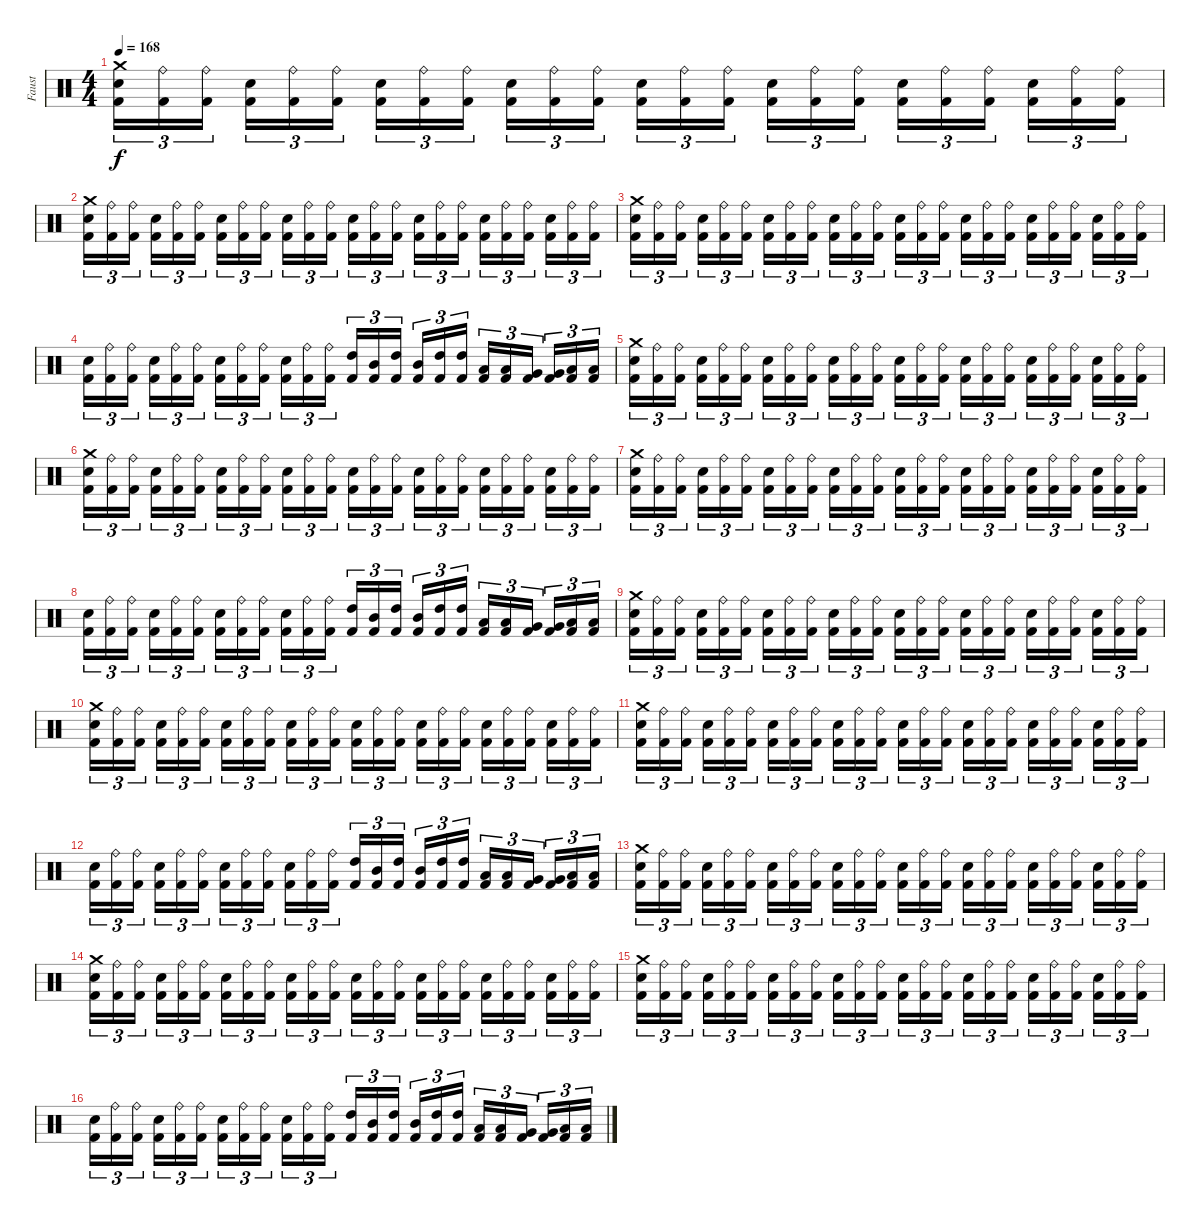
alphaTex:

\track ("Faust" "Faust") {instrument percussion}
\staff {score}
\articulation defaults
\ts (4 4)
\tempo 168
\clef neutral
\ks c
("Crash medium (hit)" "Electric Snare (hit)" "Kick (hit) 2").16{tu (3 2) dy f} ("Ride (bell)" "Kick (hit) 2").16{tu (3 2)} ("Ride (bell)" "Kick (hit) 2").16{tu (3 2)} ("Electric Snare (hit)" "Kick (hit) 2").16{tu (3 2)} ("Ride (bell)" "Kick (hit) 2").16{tu (3 2)} ("Ride (bell)" "Kick (hit) 2").16{tu (3 2)} ("Electric Snare (hit)" "Kick (hit) 2").16{tu (3 2)} ("Ride (bell)" "Kick (hit) 2").16{tu (3 2)} ("Ride (bell)" "Kick (hit) 2").16{tu (3 2)} ("Electric Snare (hit)" "Kick (hit) 2").16{tu (3 2)} ("Ride (bell)" "Kick (hit) 2").16{tu (3 2)} ("Ride (bell)" "Kick (hit) 2").16{tu (3 2)} ("Electric Snare (hit)" "Kick (hit) 2").16{tu (3 2)} ("Ride (bell)" "Kick (hit) 2").16{tu (3 2)} ("Ride (bell)" "Kick (hit) 2").16{tu (3 2)} ("Electric Snare (hit)" "Kick (hit) 2").16{tu (3 2)} ("Ride (bell)" "Kick (hit) 2").16{tu (3 2)} ("Ride (bell)" "Kick (hit) 2").16{tu (3 2)} ("Electric Snare (hit)" "Kick (hit) 2").16{tu (3 2)} ("Ride (bell)" "Kick (hit) 2").16{tu (3 2)} ("Ride (bell)" "Kick (hit) 2").16{tu (3 2)} ("Electric Snare (hit)" "Kick (hit) 2").16{tu (3 2)} ("Ride (bell)" "Kick (hit) 2").16{tu (3 2)} ("Ride (bell)" "Kick (hit) 2").16{tu (3 2)} |
("Crash medium (hit)" "Electric Snare (hit)" "Kick (hit) 2").16{tu (3 2)} ("Ride (bell)" "Kick (hit) 2").16{tu (3 2)} ("Ride (bell)" "Kick (hit) 2").16{tu (3 2)} ("Electric Snare (hit)" "Kick (hit) 2").16{tu (3 2)} ("Ride (bell)" "Kick (hit) 2").16{tu (3 2)} ("Ride (bell)" "Kick (hit) 2").16{tu (3 2)} ("Electric Snare (hit)" "Kick (hit) 2").16{tu (3 2)} ("Ride (bell)" "Kick (hit) 2").16{tu (3 2)} ("Ride (bell)" "Kick (hit) 2").16{tu (3 2)} ("Electric Snare (hit)" "Kick (hit) 2").16{tu (3 2)} ("Ride (bell)" "Kick (hit) 2").16{tu (3 2)} ("Ride (bell)" "Kick (hit) 2").16{tu (3 2)} ("Electric Snare (hit)" "Kick (hit) 2").16{tu (3 2)} ("Ride (bell)" "Kick (hit) 2").16{tu (3 2)} ("Ride (bell)" "Kick (hit) 2").16{tu (3 2)} ("Electric Snare (hit)" "Kick (hit) 2").16{tu (3 2)} ("Ride (bell)" "Kick (hit) 2").16{tu (3 2)} ("Ride (bell)" "Kick (hit) 2").16{tu (3 2)} ("Electric Snare (hit)" "Kick (hit) 2").16{tu (3 2)} ("Ride (bell)" "Kick (hit) 2").16{tu (3 2)} ("Ride (bell)" "Kick (hit) 2").16{tu (3 2)} ("Electric Snare (hit)" "Kick (hit) 2").16{tu (3 2)} ("Ride (bell)" "Kick (hit) 2").16{tu (3 2)} ("Ride (bell)" "Kick (hit) 2").16{tu (3 2)} |
("Crash medium (hit)" "Electric Snare (hit)" "Kick (hit) 2").16{tu (3 2)} ("Ride (bell)" "Kick (hit) 2").16{tu (3 2)} ("Ride (bell)" "Kick (hit) 2").16{tu (3 2)} ("Electric Snare (hit)" "Kick (hit) 2").16{tu (3 2)} ("Ride (bell)" "Kick (hit) 2").16{tu (3 2)} ("Ride (bell)" "Kick (hit) 2").16{tu (3 2)} ("Electric Snare (hit)" "Kick (hit) 2").16{tu (3 2)} ("Ride (bell)" "Kick (hit) 2").16{tu (3 2)} ("Ride (bell)" "Kick (hit) 2").16{tu (3 2)} ("Electric Snare (hit)" "Kick (hit) 2").16{tu (3 2)} ("Ride (bell)" "Kick (hit) 2").16{tu (3 2)} ("Ride (bell)" "Kick (hit) 2").16{tu (3 2)} ("Electric Snare (hit)" "Kick (hit) 2").16{tu (3 2)} ("Ride (bell)" "Kick (hit) 2").16{tu (3 2)} ("Ride (bell)" "Kick (hit) 2").16{tu (3 2)} ("Electric Snare (hit)" "Kick (hit) 2").16{tu (3 2)} ("Ride (bell)" "Kick (hit) 2").16{tu (3 2)} ("Ride (bell)" "Kick (hit) 2").16{tu (3 2)} ("Electric Snare (hit)" "Kick (hit) 2").16{tu (3 2)} ("Ride (bell)" "Kick (hit) 2").16{tu (3 2)} ("Ride (bell)" "Kick (hit) 2").16{tu (3 2)} ("Electric Snare (hit)" "Kick (hit) 2").16{tu (3 2)} ("Ride (bell)" "Kick (hit) 2").16{tu (3 2)} ("Ride (bell)" "Kick (hit) 2").16{tu (3 2)} |
("Electric Snare (hit)" "Kick (hit) 2").16{tu (3 2)} ("Ride (bell)" "Kick (hit) 2").16{tu (3 2)} ("Ride (bell)" "Kick (hit) 2").16{tu (3 2)} ("Electric Snare (hit)" "Kick (hit) 2").16{tu (3 2)} ("Ride (bell)" "Kick (hit) 2").16{tu (3 2)} ("Ride (bell)" "Kick (hit) 2").16{tu (3 2)} ("Electric Snare (hit)" "Kick (hit) 2").16{tu (3 2)} ("Ride (bell)" "Kick (hit) 2").16{tu (3 2)} ("Ride (bell)" "Kick (hit) 2").16{tu (3 2)} ("Electric Snare (hit)" "Kick (hit) 2").16{tu (3 2)} ("Ride (bell)" "Kick (hit) 2").16{tu (3 2)} ("Ride (bell)" "Kick (hit) 2").16{tu (3 2)} ("High Tom (hit)" "Kick (hit) 2").16{tu (3 2)} ("Mid Tom (hit)" "Kick (hit) 2").16{tu (3 2)} ("High Tom (hit)" "Kick (hit) 2").16{tu (3 2)} ("Mid Tom (hit)" "Kick (hit) 2").16{tu (3 2)} ("High Tom (hit)" "Kick (hit) 2").16{tu (3 2)} ("High Tom (hit)" "Kick (hit) 2").16{tu (3 2)} ("Low Tom (hit)" "Kick (hit) 2").16{tu (3 2)} ("Low Tom (hit)" "Kick (hit) 2").16{tu (3 2)} ("Very Low Tom (hit)" "Kick (hit) 2").16{tu (3 2)} ("Very Low Tom (hit)" "Kick (hit) 2").16{tu (3 2)} ("Low Floor Tom (hit)" "Kick (hit) 2").16{tu (3 2)} ("Low Floor Tom (hit)" "Kick (hit) 2").16{tu (3 2)} |
("Crash medium (hit)" "Electric Snare (hit)" "Kick (hit) 2").16{tu (3 2)} ("Ride (bell)" "Kick (hit) 2").16{tu (3 2)} ("Ride (bell)" "Kick (hit) 2").16{tu (3 2)} ("Electric Snare (hit)" "Kick (hit) 2").16{tu (3 2)} ("Ride (bell)" "Kick (hit) 2").16{tu (3 2)} ("Ride (bell)" "Kick (hit) 2").16{tu (3 2)} ("Electric Snare (hit)" "Kick (hit) 2").16{tu (3 2)} ("Ride (bell)" "Kick (hit) 2").16{tu (3 2)} ("Ride (bell)" "Kick (hit) 2").16{tu (3 2)} ("Electric Snare (hit)" "Kick (hit) 2").16{tu (3 2)} ("Ride (bell)" "Kick (hit) 2").16{tu (3 2)} ("Ride (bell)" "Kick (hit) 2").16{tu (3 2)} ("Electric Snare (hit)" "Kick (hit) 2").16{tu (3 2)} ("Ride (bell)" "Kick (hit) 2").16{tu (3 2)} ("Ride (bell)" "Kick (hit) 2").16{tu (3 2)} ("Electric Snare (hit)" "Kick (hit) 2").16{tu (3 2)} ("Ride (bell)" "Kick (hit) 2").16{tu (3 2)} ("Ride (bell)" "Kick (hit) 2").16{tu (3 2)} ("Electric Snare (hit)" "Kick (hit) 2").16{tu (3 2)} ("Ride (bell)" "Kick (hit) 2").16{tu (3 2)} ("Ride (bell)" "Kick (hit) 2").16{tu (3 2)} ("Electric Snare (hit)" "Kick (hit) 2").16{tu (3 2)} ("Ride (bell)" "Kick (hit) 2").16{tu (3 2)} ("Ride (bell)" "Kick (hit) 2").16{tu (3 2)} |
("Crash medium (hit)" "Electric Snare (hit)" "Kick (hit) 2").16{tu (3 2)} ("Ride (bell)" "Kick (hit) 2").16{tu (3 2)} ("Ride (bell)" "Kick (hit) 2").16{tu (3 2)} ("Electric Snare (hit)" "Kick (hit) 2").16{tu (3 2)} ("Ride (bell)" "Kick (hit) 2").16{tu (3 2)} ("Ride (bell)" "Kick (hit) 2").16{tu (3 2)} ("Electric Snare (hit)" "Kick (hit) 2").16{tu (3 2)} ("Ride (bell)" "Kick (hit) 2").16{tu (3 2)} ("Ride (bell)" "Kick (hit) 2").16{tu (3 2)} ("Electric Snare (hit)" "Kick (hit) 2").16{tu (3 2)} ("Ride (bell)" "Kick (hit) 2").16{tu (3 2)} ("Ride (bell)" "Kick (hit) 2").16{tu (3 2)} ("Electric Snare (hit)" "Kick (hit) 2").16{tu (3 2)} ("Ride (bell)" "Kick (hit) 2").16{tu (3 2)} ("Ride (bell)" "Kick (hit) 2").16{tu (3 2)} ("Electric Snare (hit)" "Kick (hit) 2").16{tu (3 2)} ("Ride (bell)" "Kick (hit) 2").16{tu (3 2)} ("Ride (bell)" "Kick (hit) 2").16{tu (3 2)} ("Electric Snare (hit)" "Kick (hit) 2").16{tu (3 2)} ("Ride (bell)" "Kick (hit) 2").16{tu (3 2)} ("Ride (bell)" "Kick (hit) 2").16{tu (3 2)} ("Electric Snare (hit)" "Kick (hit) 2").16{tu (3 2)} ("Ride (bell)" "Kick (hit) 2").16{tu (3 2)} ("Ride (bell)" "Kick (hit) 2").16{tu (3 2)} |
("Crash medium (hit)" "Electric Snare (hit)" "Kick (hit) 2").16{tu (3 2)} ("Ride (bell)" "Kick (hit) 2").16{tu (3 2)} ("Ride (bell)" "Kick (hit) 2").16{tu (3 2)} ("Electric Snare (hit)" "Kick (hit) 2").16{tu (3 2)} ("Ride (bell)" "Kick (hit) 2").16{tu (3 2)} ("Ride (bell)" "Kick (hit) 2").16{tu (3 2)} ("Electric Snare (hit)" "Kick (hit) 2").16{tu (3 2)} ("Ride (bell)" "Kick (hit) 2").16{tu (3 2)} ("Ride (bell)" "Kick (hit) 2").16{tu (3 2)} ("Electric Snare (hit)" "Kick (hit) 2").16{tu (3 2)} ("Ride (bell)" "Kick (hit) 2").16{tu (3 2)} ("Ride (bell)" "Kick (hit) 2").16{tu (3 2)} ("Electric Snare (hit)" "Kick (hit) 2").16{tu (3 2)} ("Ride (bell)" "Kick (hit) 2").16{tu (3 2)} ("Ride (bell)" "Kick (hit) 2").16{tu (3 2)} ("Electric Snare (hit)" "Kick (hit) 2").16{tu (3 2)} ("Ride (bell)" "Kick (hit) 2").16{tu (3 2)} ("Ride (bell)" "Kick (hit) 2").16{tu (3 2)} ("Electric Snare (hit)" "Kick (hit) 2").16{tu (3 2)} ("Ride (bell)" "Kick (hit) 2").16{tu (3 2)} ("Ride (bell)" "Kick (hit) 2").16{tu (3 2)} ("Electric Snare (hit)" "Kick (hit) 2").16{tu (3 2)} ("Ride (bell)" "Kick (hit) 2").16{tu (3 2)} ("Ride (bell)" "Kick (hit) 2").16{tu (3 2)} |
("Electric Snare (hit)" "Kick (hit) 2").16{tu (3 2)} ("Ride (bell)" "Kick (hit) 2").16{tu (3 2)} ("Ride (bell)" "Kick (hit) 2").16{tu (3 2)} ("Electric Snare (hit)" "Kick (hit) 2").16{tu (3 2)} ("Ride (bell)" "Kick (hit) 2").16{tu (3 2)} ("Ride (bell)" "Kick (hit) 2").16{tu (3 2)} ("Electric Snare (hit)" "Kick (hit) 2").16{tu (3 2)} ("Ride (bell)" "Kick (hit) 2").16{tu (3 2)} ("Ride (bell)" "Kick (hit) 2").16{tu (3 2)} ("Electric Snare (hit)" "Kick (hit) 2").16{tu (3 2)} ("Ride (bell)" "Kick (hit) 2").16{tu (3 2)} ("Ride (bell)" "Kick (hit) 2").16{tu (3 2)} ("High Tom (hit)" "Kick (hit) 2").16{tu (3 2)} ("Mid Tom (hit)" "Kick (hit) 2").16{tu (3 2)} ("High Tom (hit)" "Kick (hit) 2").16{tu (3 2)} ("Mid Tom (hit)" "Kick (hit) 2").16{tu (3 2)} ("High Tom (hit)" "Kick (hit) 2").16{tu (3 2)} ("High Tom (hit)" "Kick (hit) 2").16{tu (3 2)} ("Low Tom (hit)" "Kick (hit) 2").16{tu (3 2)} ("Low Tom (hit)" "Kick (hit) 2").16{tu (3 2)} ("Very Low Tom (hit)" "Kick (hit) 2").16{tu (3 2)} ("Very Low Tom (hit)" "Kick (hit) 2").16{tu (3 2)} ("Low Floor Tom (hit)" "Kick (hit) 2").16{tu (3 2)} ("Low Floor Tom (hit)" "Kick (hit) 2").16{tu (3 2)} |
("Crash medium (hit)" "Electric Snare (hit)" "Kick (hit) 2").16{tu (3 2)} ("Ride (bell)" "Kick (hit) 2").16{tu (3 2)} ("Ride (bell)" "Kick (hit) 2").16{tu (3 2)} ("Electric Snare (hit)" "Kick (hit) 2").16{tu (3 2)} ("Ride (bell)" "Kick (hit) 2").16{tu (3 2)} ("Ride (bell)" "Kick (hit) 2").16{tu (3 2)} ("Electric Snare (hit)" "Kick (hit) 2").16{tu (3 2)} ("Ride (bell)" "Kick (hit) 2").16{tu (3 2)} ("Ride (bell)" "Kick (hit) 2").16{tu (3 2)} ("Electric Snare (hit)" "Kick (hit) 2").16{tu (3 2)} ("Ride (bell)" "Kick (hit) 2").16{tu (3 2)} ("Ride (bell)" "Kick (hit) 2").16{tu (3 2)} ("Electric Snare (hit)" "Kick (hit) 2").16{tu (3 2)} ("Ride (bell)" "Kick (hit) 2").16{tu (3 2)} ("Ride (bell)" "Kick (hit) 2").16{tu (3 2)} ("Electric Snare (hit)" "Kick (hit) 2").16{tu (3 2)} ("Ride (bell)" "Kick (hit) 2").16{tu (3 2)} ("Ride (bell)" "Kick (hit) 2").16{tu (3 2)} ("Electric Snare (hit)" "Kick (hit) 2").16{tu (3 2)} ("Ride (bell)" "Kick (hit) 2").16{tu (3 2)} ("Ride (bell)" "Kick (hit) 2").16{tu (3 2)} ("Electric Snare (hit)" "Kick (hit) 2").16{tu (3 2)} ("Ride (bell)" "Kick (hit) 2").16{tu (3 2)} ("Ride (bell)" "Kick (hit) 2").16{tu (3 2)} |
("Crash medium (hit)" "Electric Snare (hit)" "Kick (hit) 2").16{tu (3 2)} ("Ride (bell)" "Kick (hit) 2").16{tu (3 2)} ("Ride (bell)" "Kick (hit) 2").16{tu (3 2)} ("Electric Snare (hit)" "Kick (hit) 2").16{tu (3 2)} ("Ride (bell)" "Kick (hit) 2").16{tu (3 2)} ("Ride (bell)" "Kick (hit) 2").16{tu (3 2)} ("Electric Snare (hit)" "Kick (hit) 2").16{tu (3 2)} ("Ride (bell)" "Kick (hit) 2").16{tu (3 2)} ("Ride (bell)" "Kick (hit) 2").16{tu (3 2)} ("Electric Snare (hit)" "Kick (hit) 2").16{tu (3 2)} ("Ride (bell)" "Kick (hit) 2").16{tu (3 2)} ("Ride (bell)" "Kick (hit) 2").16{tu (3 2)} ("Electric Snare (hit)" "Kick (hit) 2").16{tu (3 2)} ("Ride (bell)" "Kick (hit) 2").16{tu (3 2)} ("Ride (bell)" "Kick (hit) 2").16{tu (3 2)} ("Electric Snare (hit)" "Kick (hit) 2").16{tu (3 2)} ("Ride (bell)" "Kick (hit) 2").16{tu (3 2)} ("Ride (bell)" "Kick (hit) 2").16{tu (3 2)} ("Electric Snare (hit)" "Kick (hit) 2").16{tu (3 2)} ("Ride (bell)" "Kick (hit) 2").16{tu (3 2)} ("Ride (bell)" "Kick (hit) 2").16{tu (3 2)} ("Electric Snare (hit)" "Kick (hit) 2").16{tu (3 2)} ("Ride (bell)" "Kick (hit) 2").16{tu (3 2)} ("Ride (bell)" "Kick (hit) 2").16{tu (3 2)} |
("Crash medium (hit)" "Electric Snare (hit)" "Kick (hit) 2").16{tu (3 2)} ("Ride (bell)" "Kick (hit) 2").16{tu (3 2)} ("Ride (bell)" "Kick (hit) 2").16{tu (3 2)} ("Electric Snare (hit)" "Kick (hit) 2").16{tu (3 2)} ("Ride (bell)" "Kick (hit) 2").16{tu (3 2)} ("Ride (bell)" "Kick (hit) 2").16{tu (3 2)} ("Electric Snare (hit)" "Kick (hit) 2").16{tu (3 2)} ("Ride (bell)" "Kick (hit) 2").16{tu (3 2)} ("Ride (bell)" "Kick (hit) 2").16{tu (3 2)} ("Electric Snare (hit)" "Kick (hit) 2").16{tu (3 2)} ("Ride (bell)" "Kick (hit) 2").16{tu (3 2)} ("Ride (bell)" "Kick (hit) 2").16{tu (3 2)} ("Electric Snare (hit)" "Kick (hit) 2").16{tu (3 2)} ("Ride (bell)" "Kick (hit) 2").16{tu (3 2)} ("Ride (bell)" "Kick (hit) 2").16{tu (3 2)} ("Electric Snare (hit)" "Kick (hit) 2").16{tu (3 2)} ("Ride (bell)" "Kick (hit) 2").16{tu (3 2)} ("Ride (bell)" "Kick (hit) 2").16{tu (3 2)} ("Electric Snare (hit)" "Kick (hit) 2").16{tu (3 2)} ("Ride (bell)" "Kick (hit) 2").16{tu (3 2)} ("Ride (bell)" "Kick (hit) 2").16{tu (3 2)} ("Electric Snare (hit)" "Kick (hit) 2").16{tu (3 2)} ("Ride (bell)" "Kick (hit) 2").16{tu (3 2)} ("Ride (bell)" "Kick (hit) 2").16{tu (3 2)} |
("Electric Snare (hit)" "Kick (hit) 2").16{tu (3 2)} ("Ride (bell)" "Kick (hit) 2").16{tu (3 2)} ("Ride (bell)" "Kick (hit) 2").16{tu (3 2)} ("Electric Snare (hit)" "Kick (hit) 2").16{tu (3 2)} ("Ride (bell)" "Kick (hit) 2").16{tu (3 2)} ("Ride (bell)" "Kick (hit) 2").16{tu (3 2)} ("Electric Snare (hit)" "Kick (hit) 2").16{tu (3 2)} ("Ride (bell)" "Kick (hit) 2").16{tu (3 2)} ("Ride (bell)" "Kick (hit) 2").16{tu (3 2)} ("Electric Snare (hit)" "Kick (hit) 2").16{tu (3 2)} ("Ride (bell)" "Kick (hit) 2").16{tu (3 2)} ("Ride (bell)" "Kick (hit) 2").16{tu (3 2)} ("High Tom (hit)" "Kick (hit) 2").16{tu (3 2)} ("Mid Tom (hit)" "Kick (hit) 2").16{tu (3 2)} ("High Tom (hit)" "Kick (hit) 2").16{tu (3 2)} ("Mid Tom (hit)" "Kick (hit) 2").16{tu (3 2)} ("High Tom (hit)" "Kick (hit) 2").16{tu (3 2)} ("High Tom (hit)" "Kick (hit) 2").16{tu (3 2)} ("Low Tom (hit)" "Kick (hit) 2").16{tu (3 2)} ("Low Tom (hit)" "Kick (hit) 2").16{tu (3 2)} ("Very Low Tom (hit)" "Kick (hit) 2").16{tu (3 2)} ("Very Low Tom (hit)" "Kick (hit) 2").16{tu (3 2)} ("Low Floor Tom (hit)" "Kick (hit) 2").16{tu (3 2)} ("Low Floor Tom (hit)" "Kick (hit) 2").16{tu (3 2)} |
("Crash medium (hit)" "Electric Snare (hit)" "Kick (hit) 2").16{tu (3 2)} ("Ride (bell)" "Kick (hit) 2").16{tu (3 2)} ("Ride (bell)" "Kick (hit) 2").16{tu (3 2)} ("Electric Snare (hit)" "Kick (hit) 2").16{tu (3 2)} ("Ride (bell)" "Kick (hit) 2").16{tu (3 2)} ("Ride (bell)" "Kick (hit) 2").16{tu (3 2)} ("Electric Snare (hit)" "Kick (hit) 2").16{tu (3 2)} ("Ride (bell)" "Kick (hit) 2").16{tu (3 2)} ("Ride (bell)" "Kick (hit) 2").16{tu (3 2)} ("Electric Snare (hit)" "Kick (hit) 2").16{tu (3 2)} ("Ride (bell)" "Kick (hit) 2").16{tu (3 2)} ("Ride (bell)" "Kick (hit) 2").16{tu (3 2)} ("Electric Snare (hit)" "Kick (hit) 2").16{tu (3 2)} ("Ride (bell)" "Kick (hit) 2").16{tu (3 2)} ("Ride (bell)" "Kick (hit) 2").16{tu (3 2)} ("Electric Snare (hit)" "Kick (hit) 2").16{tu (3 2)} ("Ride (bell)" "Kick (hit) 2").16{tu (3 2)} ("Ride (bell)" "Kick (hit) 2").16{tu (3 2)} ("Electric Snare (hit)" "Kick (hit) 2").16{tu (3 2)} ("Ride (bell)" "Kick (hit) 2").16{tu (3 2)} ("Ride (bell)" "Kick (hit) 2").16{tu (3 2)} ("Electric Snare (hit)" "Kick (hit) 2").16{tu (3 2)} ("Ride (bell)" "Kick (hit) 2").16{tu (3 2)} ("Ride (bell)" "Kick (hit) 2").16{tu (3 2)} |
("Crash medium (hit)" "Electric Snare (hit)" "Kick (hit) 2").16{tu (3 2)} ("Ride (bell)" "Kick (hit) 2").16{tu (3 2)} ("Ride (bell)" "Kick (hit) 2").16{tu (3 2)} ("Electric Snare (hit)" "Kick (hit) 2").16{tu (3 2)} ("Ride (bell)" "Kick (hit) 2").16{tu (3 2)} ("Ride (bell)" "Kick (hit) 2").16{tu (3 2)} ("Electric Snare (hit)" "Kick (hit) 2").16{tu (3 2)} ("Ride (bell)" "Kick (hit) 2").16{tu (3 2)} ("Ride (bell)" "Kick (hit) 2").16{tu (3 2)} ("Electric Snare (hit)" "Kick (hit) 2").16{tu (3 2)} ("Ride (bell)" "Kick (hit) 2").16{tu (3 2)} ("Ride (bell)" "Kick (hit) 2").16{tu (3 2)} ("Electric Snare (hit)" "Kick (hit) 2").16{tu (3 2)} ("Ride (bell)" "Kick (hit) 2").16{tu (3 2)} ("Ride (bell)" "Kick (hit) 2").16{tu (3 2)} ("Electric Snare (hit)" "Kick (hit) 2").16{tu (3 2)} ("Ride (bell)" "Kick (hit) 2").16{tu (3 2)} ("Ride (bell)" "Kick (hit) 2").16{tu (3 2)} ("Electric Snare (hit)" "Kick (hit) 2").16{tu (3 2)} ("Ride (bell)" "Kick (hit) 2").16{tu (3 2)} ("Ride (bell)" "Kick (hit) 2").16{tu (3 2)} ("Electric Snare (hit)" "Kick (hit) 2").16{tu (3 2)} ("Ride (bell)" "Kick (hit) 2").16{tu (3 2)} ("Ride (bell)" "Kick (hit) 2").16{tu (3 2)} |
("Crash medium (hit)" "Electric Snare (hit)" "Kick (hit) 2").16{tu (3 2)} ("Ride (bell)" "Kick (hit) 2").16{tu (3 2)} ("Ride (bell)" "Kick (hit) 2").16{tu (3 2)} ("Electric Snare (hit)" "Kick (hit) 2").16{tu (3 2)} ("Ride (bell)" "Kick (hit) 2").16{tu (3 2)} ("Ride (bell)" "Kick (hit) 2").16{tu (3 2)} ("Electric Snare (hit)" "Kick (hit) 2").16{tu (3 2)} ("Ride (bell)" "Kick (hit) 2").16{tu (3 2)} ("Ride (bell)" "Kick (hit) 2").16{tu (3 2)} ("Electric Snare (hit)" "Kick (hit) 2").16{tu (3 2)} ("Ride (bell)" "Kick (hit) 2").16{tu (3 2)} ("Ride (bell)" "Kick (hit) 2").16{tu (3 2)} ("Electric Snare (hit)" "Kick (hit) 2").16{tu (3 2)} ("Ride (bell)" "Kick (hit) 2").16{tu (3 2)} ("Ride (bell)" "Kick (hit) 2").16{tu (3 2)} ("Electric Snare (hit)" "Kick (hit) 2").16{tu (3 2)} ("Ride (bell)" "Kick (hit) 2").16{tu (3 2)} ("Ride (bell)" "Kick (hit) 2").16{tu (3 2)} ("Electric Snare (hit)" "Kick (hit) 2").16{tu (3 2)} ("Ride (bell)" "Kick (hit) 2").16{tu (3 2)} ("Ride (bell)" "Kick (hit) 2").16{tu (3 2)} ("Electric Snare (hit)" "Kick (hit) 2").16{tu (3 2)} ("Ride (bell)" "Kick (hit) 2").16{tu (3 2)} ("Ride (bell)" "Kick (hit) 2").16{tu (3 2)} |
("Electric Snare (hit)" "Kick (hit) 2").16{tu (3 2)} ("Ride (bell)" "Kick (hit) 2").16{tu (3 2)} ("Ride (bell)" "Kick (hit) 2").16{tu (3 2)} ("Electric Snare (hit)" "Kick (hit) 2").16{tu (3 2)} ("Ride (bell)" "Kick (hit) 2").16{tu (3 2)} ("Ride (bell)" "Kick (hit) 2").16{tu (3 2)} ("Electric Snare (hit)" "Kick (hit) 2").16{tu (3 2)} ("Ride (bell)" "Kick (hit) 2").16{tu (3 2)} ("Ride (bell)" "Kick (hit) 2").16{tu (3 2)} ("Electric Snare (hit)" "Kick (hit) 2").16{tu (3 2)} ("Ride (bell)" "Kick (hit) 2").16{tu (3 2)} ("Ride (bell)" "Kick (hit) 2").16{tu (3 2)} ("High Tom (hit)" "Kick (hit) 2").16{tu (3 2)} ("Mid Tom (hit)" "Kick (hit) 2").16{tu (3 2)} ("High Tom (hit)" "Kick (hit) 2").16{tu (3 2)} ("Mid Tom (hit)" "Kick (hit) 2").16{tu (3 2)} ("High Tom (hit)" "Kick (hit) 2").16{tu (3 2)} ("High Tom (hit)" "Kick (hit) 2").16{tu (3 2)} ("Low Tom (hit)" "Kick (hit) 2").16{tu (3 2)} ("Low Tom (hit)" "Kick (hit) 2").16{tu (3 2)} ("Very Low Tom (hit)" "Kick (hit) 2").16{tu (3 2)} ("Very Low Tom (hit)" "Kick (hit) 2").16{tu (3 2)} ("Low Floor Tom (hit)" "Kick (hit) 2").16{tu (3 2)} ("Low Floor Tom (hit)" "Kick (hit) 2").16{tu (3 2)}
